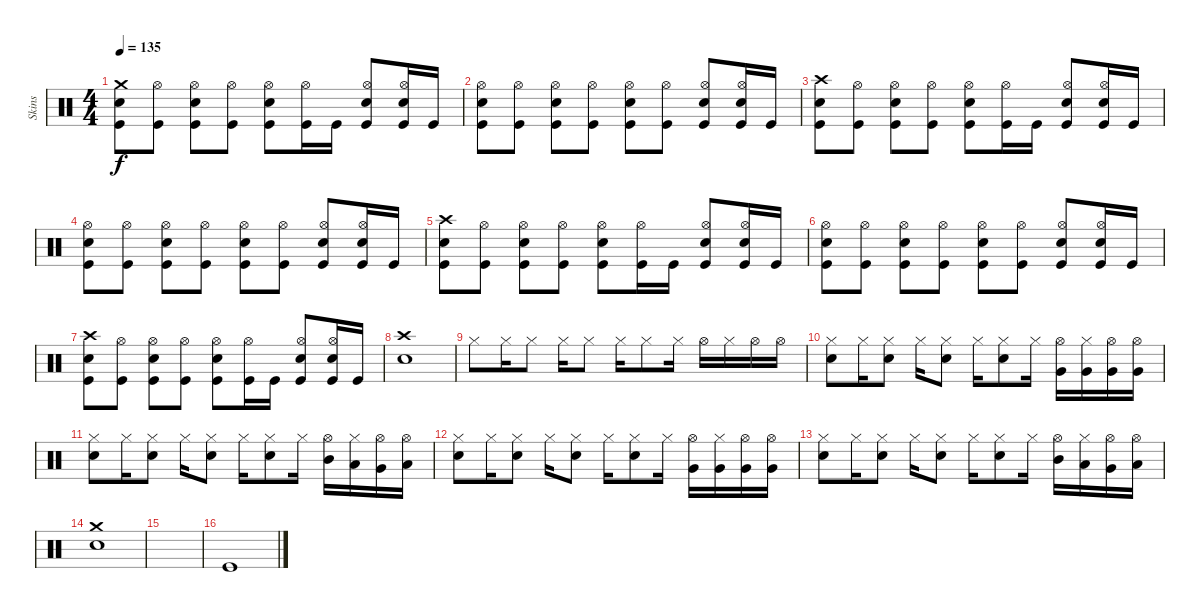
\track ("Skins" "Skins") {instrument percussion}
\staff {score}
\articulation defaults
\ts (4 4)
\tempo 135
\clef neutral
\ks c
("Crash medium (hit)" "Snare (hit) 2" "Kick (hit)").8{dy f} ("Hi-Hat (open)" "Kick (hit)").8 ("Hi-Hat (open)" "Snare (hit) 2" "Kick (hit)").8 ("Hi-Hat (open)" "Kick (hit)").8 ("Hi-Hat (open)" "Snare (hit) 2" "Kick (hit)").8 ("Hi-Hat (open)" "Kick (hit)").16 "Kick (hit)".16 ("Hi-Hat (open)" "Electric Snare (hit)" "Kick (hit)").8 ("Hi-Hat (open)" "Electric Snare (hit)" "Kick (hit)").16 "Kick (hit)".16 |
("Hi-Hat (open)" "Snare (hit) 2" "Kick (hit)").8 ("Hi-Hat (open)" "Kick (hit)").8 ("Hi-Hat (open)" "Snare (hit) 2" "Kick (hit)").8 ("Hi-Hat (open)" "Kick (hit)").8 ("Hi-Hat (open)" "Snare (hit) 2" "Kick (hit)").8 ("Hi-Hat (open)" "Kick (hit)").8 ("Hi-Hat (open)" "Electric Snare (hit)" "Kick (hit)").8 ("Hi-Hat (open)" "Electric Snare (hit)" "Kick (hit)").16 "Kick (hit)".16 |
("Crash high (hit)" "Snare (hit) 2" "Kick (hit)").8 ("Hi-Hat (open)" "Kick (hit)").8 ("Hi-Hat (open)" "Snare (hit) 2" "Kick (hit)").8 ("Hi-Hat (open)" "Kick (hit)").8 ("Hi-Hat (open)" "Snare (hit) 2" "Kick (hit)").8 ("Hi-Hat (open)" "Kick (hit)").16 "Kick (hit)".16 ("Hi-Hat (open)" "Electric Snare (hit)" "Kick (hit)").8 ("Hi-Hat (open)" "Electric Snare (hit)" "Kick (hit)").16 "Kick (hit)".16 |
("Hi-Hat (open)" "Snare (hit) 2" "Kick (hit)").8 ("Hi-Hat (open)" "Kick (hit)").8 ("Hi-Hat (open)" "Snare (hit) 2" "Kick (hit)").8 ("Hi-Hat (open)" "Kick (hit)").8 ("Hi-Hat (open)" "Snare (hit) 2" "Kick (hit)").8 ("Hi-Hat (open)" "Kick (hit)").8 ("Hi-Hat (open)" "Electric Snare (hit)" "Kick (hit)").8 ("Hi-Hat (open)" "Electric Snare (hit)" "Kick (hit)").16 "Kick (hit)".16 |
("Crash high (hit)" "Snare (hit) 2" "Kick (hit)").8 ("Hi-Hat (open)" "Kick (hit)").8 ("Hi-Hat (open)" "Snare (hit) 2" "Kick (hit)").8 ("Hi-Hat (open)" "Kick (hit)").8 ("Hi-Hat (open)" "Snare (hit) 2" "Kick (hit)").8 ("Hi-Hat (open)" "Kick (hit)").16 "Kick (hit)".16 ("Hi-Hat (open)" "Electric Snare (hit)" "Kick (hit)").8 ("Hi-Hat (open)" "Electric Snare (hit)" "Kick (hit)").16 "Kick (hit)".16 |
("Hi-Hat (open)" "Snare (hit) 2" "Kick (hit)").8 ("Hi-Hat (open)" "Kick (hit)").8 ("Hi-Hat (open)" "Snare (hit) 2" "Kick (hit)").8 ("Hi-Hat (open)" "Kick (hit)").8 ("Hi-Hat (open)" "Snare (hit) 2" "Kick (hit)").8 ("Hi-Hat (open)" "Kick (hit)").8 ("Hi-Hat (open)" "Electric Snare (hit)" "Kick (hit)").8 ("Hi-Hat (open)" "Electric Snare (hit)" "Kick (hit)").16 "Kick (hit)".16 |
("Crash high (hit)" "Snare (hit) 2" "Kick (hit)").8 ("Hi-Hat (open)" "Kick (hit)").8 ("Hi-Hat (open)" "Snare (hit) 2" "Kick (hit)").8 ("Hi-Hat (open)" "Kick (hit)").8 ("Hi-Hat (open)" "Snare (hit) 2" "Kick (hit)").8 ("Hi-Hat (open)" "Kick (hit)").16 "Kick (hit)".16 ("Hi-Hat (open)" "Electric Snare (hit)" "Kick (hit)").8 ("Hi-Hat (open)" "Electric Snare (hit)" "Kick (hit)").16 "Kick (hit)".16 |
("Crash high (hit)" "Electric Snare (hit)").1 |
"Hi-Hat (closed)".8 "Hi-Hat (closed)".16 "Hi-Hat (closed)".8 "Hi-Hat (closed)".16 "Hi-Hat (closed)".8 "Hi-Hat (closed)".16 "Hi-Hat (closed)".8 "Hi-Hat (closed)".16 "Hi-Hat (open)".16 "Hi-Hat (closed)".16 "Hi-Hat (open)".16 "Hi-Hat (open)".16 |
("Hi-Hat (closed)" "Electric Snare (hit)").8 "Hi-Hat (closed)".16 ("Hi-Hat (closed)" "Electric Snare (hit)").8 "Hi-Hat (closed)".16 ("Hi-Hat (closed)" "Electric Snare (hit)").8 "Hi-Hat (closed)".16 ("Hi-Hat (closed)" "Electric Snare (hit)").8 "Hi-Hat (closed)".16 ("Hi-Hat (open)" "Very Low Tom (hit)").16 ("Hi-Hat (closed)" "Very Low Tom (hit)").16 ("Hi-Hat (open)" "Very Low Tom (hit)").16 ("Hi-Hat (open)" "Very Low Tom (hit)").16 |
("Hi-Hat (closed)" "Electric Snare (hit)").8 "Hi-Hat (closed)".16 ("Hi-Hat (closed)" "Electric Snare (hit)").8 "Hi-Hat (closed)".16 ("Hi-Hat (closed)" "Electric Snare (hit)").8 "Hi-Hat (closed)".16 ("Hi-Hat (closed)" "Electric Snare (hit)").8 "Hi-Hat (closed)".16 ("Hi-Hat (open)" "Mid Tom (hit)").16 ("Hi-Hat (closed)" "Low Tom (hit)").16 ("Hi-Hat (open)" "Very Low Tom (hit)").16 ("Hi-Hat (open)" "Low Floor Tom (hit)").16 |
("Hi-Hat (closed)" "Electric Snare (hit)").8 "Hi-Hat (closed)".16 ("Hi-Hat (closed)" "Electric Snare (hit)").8 "Hi-Hat (closed)".16 ("Hi-Hat (closed)" "Electric Snare (hit)").8 "Hi-Hat (closed)".16 ("Hi-Hat (closed)" "Electric Snare (hit)").8 "Hi-Hat (closed)".16 ("Hi-Hat (open)" "Very Low Tom (hit)").16 ("Hi-Hat (closed)" "Very Low Tom (hit)").16 ("Hi-Hat (open)" "Very Low Tom (hit)").16 ("Hi-Hat (open)" "Very Low Tom (hit)").16 |
("Hi-Hat (closed)" "Electric Snare (hit)").8 "Hi-Hat (closed)".16 ("Hi-Hat (closed)" "Electric Snare (hit)").8 "Hi-Hat (closed)".16 ("Hi-Hat (closed)" "Electric Snare (hit)").8 "Hi-Hat (closed)".16 ("Hi-Hat (closed)" "Electric Snare (hit)").8 "Hi-Hat (closed)".16 ("Hi-Hat (open)" "Mid Tom (hit)").16 ("Hi-Hat (closed)" "Low Tom (hit)").16 ("Hi-Hat (open)" "Very Low Tom (hit)").16 ("Hi-Hat (open)" "Low Floor Tom (hit)").16 |
("Crash medium (hit)" "Electric Snare (hit)").1 |
|
"Kick (hit)".1
